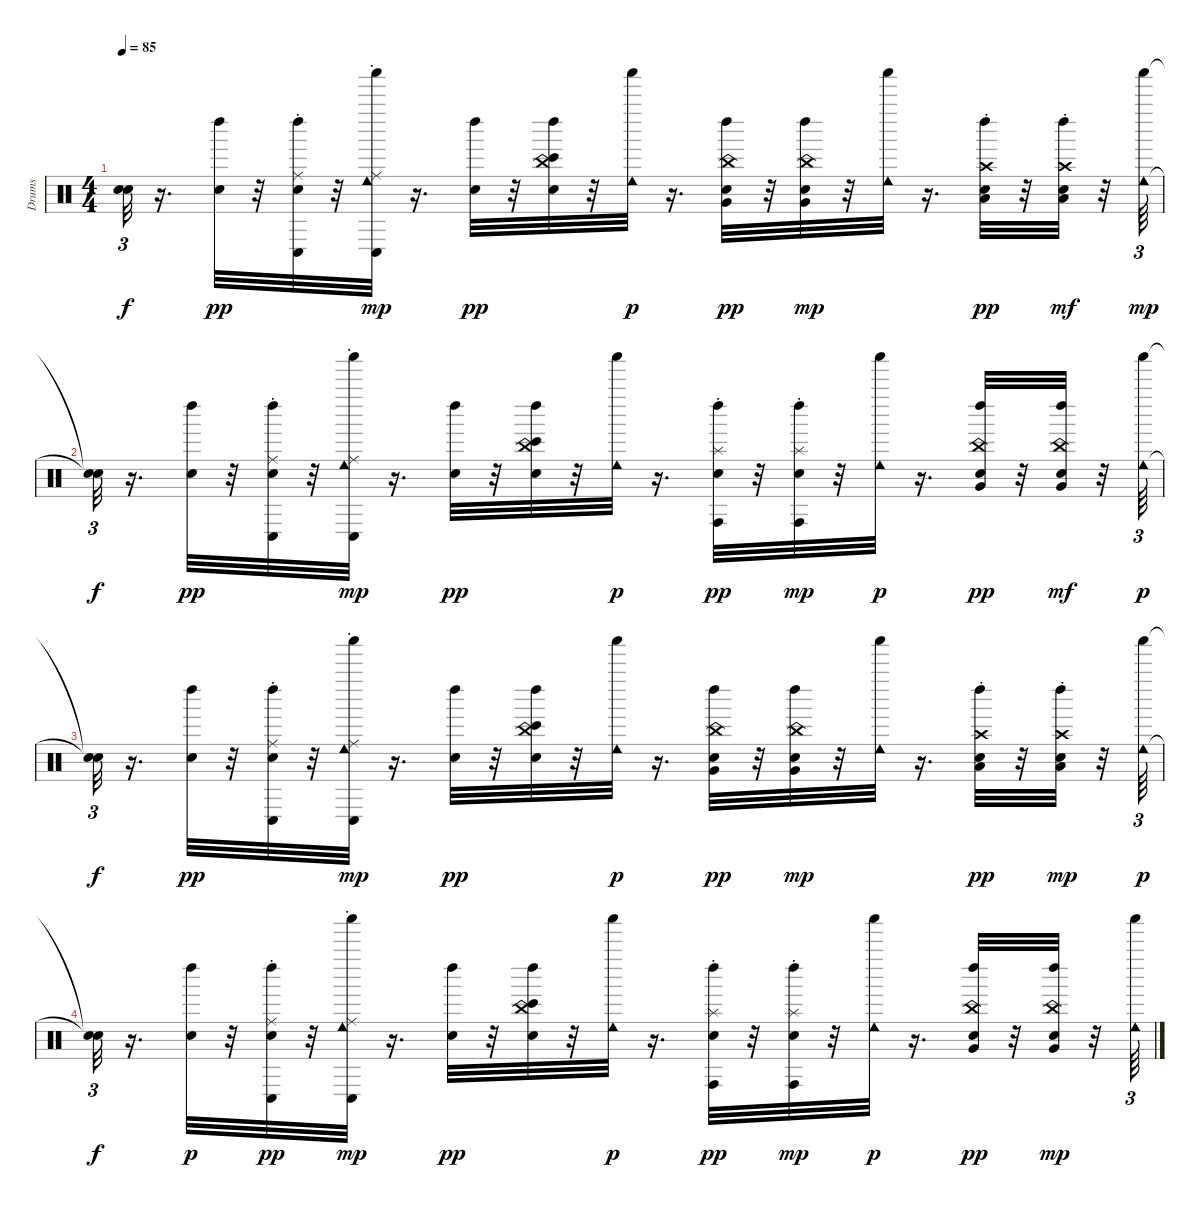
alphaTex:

\track ("Drums" "Drums") {instrument percussion}
\staff {score}
\articulation defaults
\ts (4 4)
\tempo 85
\clef neutral
\ks c
("Snare (hit)"{t} "Snare (hit)"{t}).32{tu (3 2) dy f} r.16{d} ("Left Maraca (hit)" "Snare (hit)").32{dy pp} r.32 ("Ride (choke)" "Conga low (hit)" "Left Maraca (hit)" "Snare (hit)").32 r.32 ("Shaker (hit)" "Cowbell low (hit)" "Conga low (hit)" "Ride (choke)").32{dy mp} r.16{d} ("Left Maraca (hit)" "Snare (hit)").32{dy pp} r.32 ("China (choke)" "Bongo High (hit)" "Left Maraca (hit)" "Snare (hit)").32 r.32 ("Shaker (hit)" "Cowbell low (hit)").32{dy p} r.16{d} ("China (choke)" "Very Low Tom (hit)" "Left Maraca (hit)" "Snare (hit)").32{dy pp} r.32 ("Left Maraca (hit)" "Snare (hit)" "China (choke)" "Very Low Tom (hit)").32{dy mp} r.32 ("Cowbell low (hit)" "Shaker (hit)").32 r.16{d} ("Crash high (choke)" "Left Maraca (hit)" "Low Floor Tom (hit)" "Snare (hit)").32{dy pp} r.32 ("Snare (hit)" "Left Maraca (hit)" "Low Floor Tom (hit)" "Crash high (choke)").32{dy mf} r.32 ("Cowbell low (hit)" "Shaker (hit)").64{tu (3 2) dy mp} |
("Snare (hit)"{t} "Snare (hit)"{t}).32{tu (3 2) dy f} r.16{d} ("Left Maraca (hit)" "Snare (hit)").32{dy pp} r.32 ("Conga low (hit)" "Ride (choke)" "Left Maraca (hit)" "Snare (hit)").32 r.32 ("Shaker (hit)" "Cowbell low (hit)" "Conga low (hit)" "Ride (choke)").32{dy mp} r.16{d} ("Snare (hit)" "Left Maraca (hit)").32{dy pp} r.32 ("Bongo High (hit)" "China (choke)" "Left Maraca (hit)" "Snare (hit)").32 r.32 ("Shaker (hit)" "Cowbell low (hit)").32{dy p} r.16{d} ("Conga high (hit)" "Splash (choke)" "Left Maraca (hit)" "Snare (hit)").32{dy pp} r.32 ("Left Maraca (hit)" "Snare (hit)" "Conga high (hit)" "Splash (choke)").32{dy mp} r.32 ("Shaker (hit)" "Cowbell low (hit)").32{dy p} r.16{d} ("China (choke)" "Very Low Tom (hit)" "Left Maraca (hit)" "Snare (hit)").32{dy pp} r.32 ("Snare (hit)" "Left Maraca (hit)" "Very Low Tom (hit)" "China (choke)").32{dy mf} r.32 ("Shaker (hit)" "Cowbell low (hit)").64{tu (3 2) dy p} |
("Snare (hit)"{t} "Snare (hit)"{t}).32{tu (3 2) dy f} r.16{d} ("Left Maraca (hit)" "Snare (hit)").32{dy pp} r.32 ("Conga low (hit)" "Ride (choke)" "Left Maraca (hit)" "Snare (hit)").32 r.32 ("Shaker (hit)" "Conga low (hit)" "Cowbell low (hit)" "Ride (choke)").32{dy mp} r.16{d} ("Left Maraca (hit)" "Snare (hit)").32{dy pp} r.32 ("Bongo High (hit)" "China (choke)" "Left Maraca (hit)" "Snare (hit)").32 r.32 ("Shaker (hit)" "Cowbell low (hit)").32{dy p} r.16{d} ("China (choke)" "Very Low Tom (hit)" "Left Maraca (hit)" "Snare (hit)").32{dy pp} r.32 ("Left Maraca (hit)" "Snare (hit)" "Very Low Tom (hit)" "China (choke)").32{dy mp} r.32 ("Cowbell low (hit)" "Shaker (hit)").32 r.16{d} ("Crash high (choke)" "Low Floor Tom (hit)" "Snare (hit)" "Left Maraca (hit)").32{dy pp} r.32 ("Left Maraca (hit)" "Crash high (choke)" "Snare (hit)" "Low Floor Tom (hit)").32{dy mp} r.32 ("Shaker (hit)" "Cowbell low (hit)").64{tu (3 2) dy p} |
("Snare (hit)"{t} "Snare (hit)"{t}).32{tu (3 2) dy f} r.16{d} ("Snare (hit)" "Left Maraca (hit)").32{dy p} r.32 ("Conga low (hit)" "Ride (choke)" "Left Maraca (hit)" "Snare (hit)").32{dy pp} r.32 ("Shaker (hit)" "Cowbell low (hit)" "Conga low (hit)" "Ride (choke)").32{dy mp} r.16{d} ("Left Maraca (hit)" "Snare (hit)").32{dy pp} r.32 ("Bongo High (hit)" "China (choke)" "Snare (hit)" "Left Maraca (hit)").32 r.32 ("Shaker (hit)" "Cowbell low (hit)").32{dy p} r.16{d} ("Splash (choke)" "Conga high (hit)" "Snare (hit)" "Left Maraca (hit)").32{dy pp} r.32 ("Left Maraca (hit)" "Conga high (hit)" "Snare (hit)" "Splash (choke)").32{dy mp} r.32 ("Shaker (hit)" "Cowbell low (hit)").32{dy p} r.16{d} ("China (choke)" "Very Low Tom (hit)" "Left Maraca (hit)" "Snare (hit)").32{dy pp} r.32 ("Left Maraca (hit)" "Snare (hit)" "China (choke)" "Very Low Tom (hit)").32{dy mp} r.32 ("Cowbell low (hit)" "Shaker (hit)").64{tu (3 2)}
